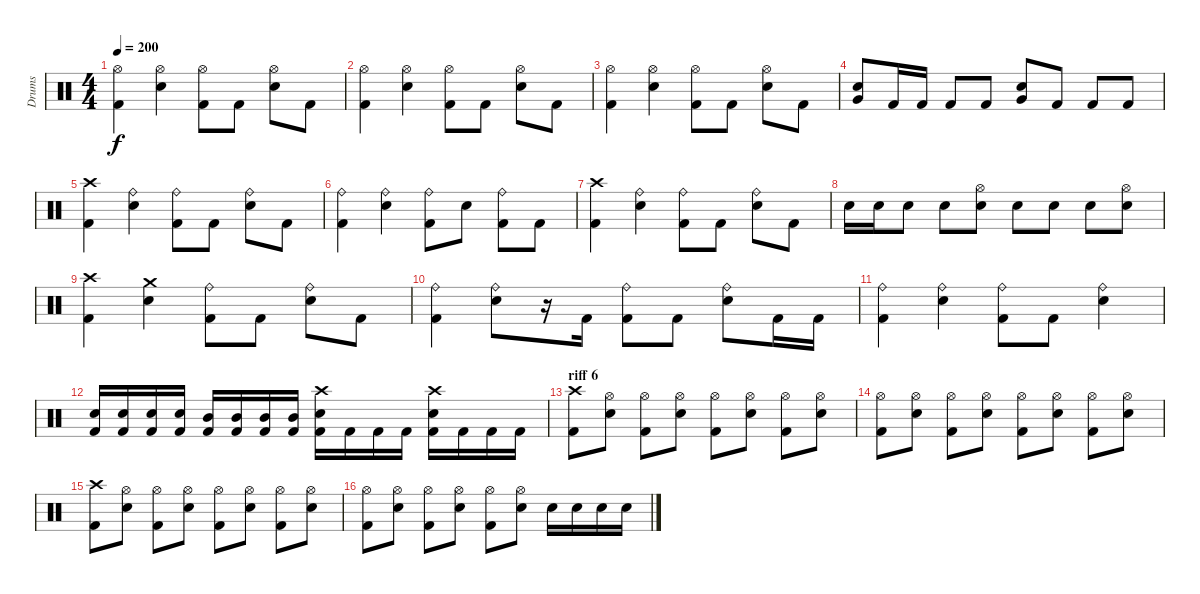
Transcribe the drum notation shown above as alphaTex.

\track ("Drums" "Drums") {instrument percussion}
\staff {score}
\articulation defaults
\ts (4 4)
\tempo 200
\clef neutral
\ks c
("Hi-Hat (open)" "Kick (hit) 2").4{dy f} ("Hi-Hat (open)" "Electric Snare (hit)").4 ("Hi-Hat (open)" "Kick (hit) 2").8 "Kick (hit) 2".8 ("Hi-Hat (open)" "Electric Snare (hit)").8 "Kick (hit) 2".8 |
("Hi-Hat (open)" "Kick (hit) 2").4 ("Hi-Hat (open)" "Electric Snare (hit)").4 ("Hi-Hat (open)" "Kick (hit) 2").8 "Kick (hit) 2".8 ("Hi-Hat (open)" "Electric Snare (hit)").8 "Kick (hit) 2".8 |
("Hi-Hat (open)" "Kick (hit) 2").4 ("Hi-Hat (open)" "Electric Snare (hit)").4 ("Hi-Hat (open)" "Kick (hit) 2").8 "Kick (hit) 2".8 ("Hi-Hat (open)" "Electric Snare (hit)").8 "Kick (hit) 2".8 |
("Very Low Tom (hit)" "Electric Snare (hit)").8 "Kick (hit) 2".16 "Kick (hit) 2".16 "Kick (hit) 2".8 "Kick (hit) 2".8 ("Very Low Tom (hit)" "Electric Snare (hit)").8 "Kick (hit) 2".8 "Kick (hit) 2".8 "Kick (hit) 2".8 |
("Crash high (hit)" "Kick (hit) 2").4 ("Ride (bell)" "Electric Snare (hit)").4 ("Ride (bell)" "Kick (hit) 2").8 "Kick (hit) 2".8 ("Ride (bell)" "Electric Snare (hit)").8 "Kick (hit) 2".8 |
("Ride (bell)" "Kick (hit) 2").4 ("Ride (bell)" "Electric Snare (hit)").4 ("Ride (bell)" "Kick (hit) 2").8 "Electric Snare (hit)".8 ("Ride (bell)" "Kick (hit) 2").8 "Kick (hit) 2".8 |
("Crash high (hit)" "Kick (hit) 2").4 ("Ride (bell)" "Electric Snare (hit)").4 ("Ride (bell)" "Kick (hit) 2").8 "Kick (hit) 2".8 ("Ride (bell)" "Electric Snare (hit)").8 "Kick (hit) 2".8 |
"Electric Snare (hit)".16 "Electric Snare (hit)".16 "Electric Snare (hit)".8 "Electric Snare (hit)".8 ("Electric Snare (hit)" "Hi-Hat (open)").8 "Electric Snare (hit)".8 "Electric Snare (hit)".8 "Electric Snare (hit)".8 ("Electric Snare (hit)" "Hi-Hat (open)").8 |
("Crash high (hit)" "Kick (hit) 2").4 ("Crash medium (hit)" "Electric Snare (hit)").4 ("Ride (bell)" "Kick (hit) 2").8 "Kick (hit) 2".8 ("Ride (bell)" "Electric Snare (hit)").8 "Kick (hit) 2".8 |
("Ride (bell)" "Kick (hit) 2").4 ("Ride (bell)" "Electric Snare (hit)").8 r.16 "Kick (hit) 2".16 ("Ride (bell)" "Kick (hit) 2").8 "Kick (hit) 2".8 ("Ride (bell)" "Electric Snare (hit)").8 "Kick (hit) 2".16 "Kick (hit) 2".16 |
("Ride (bell)" "Kick (hit) 2").4 ("Ride (bell)" "Electric Snare (hit)").4 ("Ride (bell)" "Kick (hit) 2").8 "Kick (hit) 2".8 ("Ride (bell)" "Electric Snare (hit)").4 |
("Electric Snare (hit)" "Kick (hit) 2").16 ("Electric Snare (hit)" "Kick (hit) 2").16 ("Electric Snare (hit)" "Kick (hit) 2").16 ("Electric Snare (hit)" "Kick (hit) 2").16 ("Mid Tom (hit)" "Kick (hit) 2").16 ("Mid Tom (hit)" "Kick (hit) 2").16 ("Mid Tom (hit)" "Kick (hit) 2").16 ("Mid Tom (hit)" "Kick (hit) 2").16 ("Crash high (hit)" "Electric Snare (hit)" "Kick (hit) 2").16 "Kick (hit) 2".16 "Kick (hit) 2".16 "Kick (hit) 2".16 ("Crash high (hit)" "Electric Snare (hit)" "Kick (hit) 2").16 "Kick (hit) 2".16 "Kick (hit) 2".16 "Kick (hit) 2".16 |
\section ("" "riff 6")
("Crash high (hit)" "Kick (hit) 2").8 ("Hi-Hat (open)" "Electric Snare (hit)").8 ("Hi-Hat (open)" "Kick (hit) 2").8 ("Hi-Hat (open)" "Electric Snare (hit)").8 ("Hi-Hat (open)" "Kick (hit) 2").8 ("Hi-Hat (open)" "Electric Snare (hit)").8 ("Hi-Hat (open)" "Kick (hit) 2").8 ("Hi-Hat (open)" "Electric Snare (hit)").8 |
("Hi-Hat (open)" "Kick (hit) 2").8 ("Hi-Hat (open)" "Electric Snare (hit)").8 ("Hi-Hat (open)" "Kick (hit) 2").8 ("Hi-Hat (open)" "Electric Snare (hit)").8 ("Hi-Hat (open)" "Kick (hit) 2").8 ("Hi-Hat (open)" "Electric Snare (hit)").8 ("Hi-Hat (open)" "Kick (hit) 2").8 ("Hi-Hat (open)" "Electric Snare (hit)").8 |
("Crash high (hit)" "Kick (hit) 2").8 ("Hi-Hat (open)" "Electric Snare (hit)").8 ("Hi-Hat (open)" "Kick (hit) 2").8 ("Hi-Hat (open)" "Electric Snare (hit)").8 ("Hi-Hat (open)" "Kick (hit) 2").8 ("Hi-Hat (open)" "Electric Snare (hit)").8 ("Hi-Hat (open)" "Kick (hit) 2").8 ("Hi-Hat (open)" "Electric Snare (hit)").8 |
("Hi-Hat (open)" "Kick (hit) 2").8 ("Hi-Hat (open)" "Electric Snare (hit)").8 ("Hi-Hat (open)" "Kick (hit) 2").8 ("Hi-Hat (open)" "Electric Snare (hit)").8 ("Hi-Hat (open)" "Kick (hit) 2").8 ("Hi-Hat (open)" "Electric Snare (hit)").8 "Electric Snare (hit)".16 "Electric Snare (hit)".16 "Electric Snare (hit)".16 "Electric Snare (hit)".16
